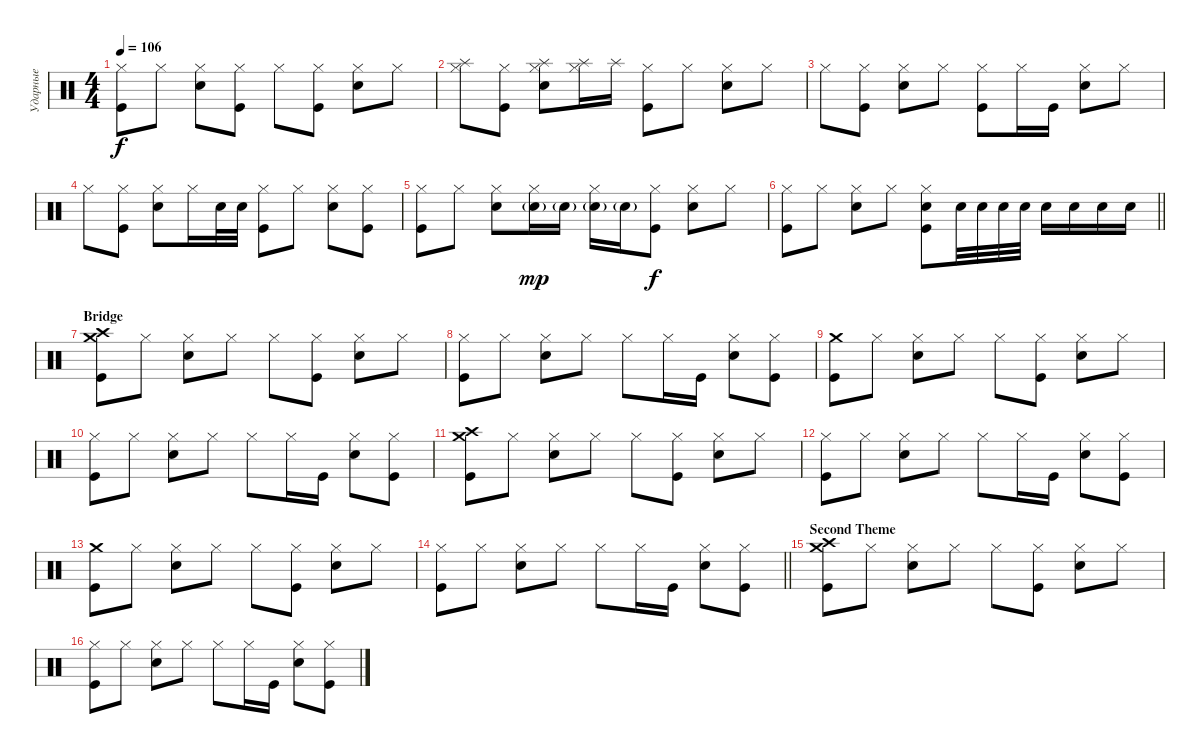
\track ("Ударные" "Ударные") {instrument percussion}
\staff {score}
\articulation defaults
\ts (4 4)
\tempo 106
\clef neutral
\ks c
("Hi-Hat (closed)" "Kick (hit)").8{dy f} "Hi-Hat (closed)".8 ("Hi-Hat (closed)" "Snare (hit) 2").8 ("Hi-Hat (closed)" "Kick (hit)").8 "Hi-Hat (closed)".8 ("Hi-Hat (closed)" "Kick (hit)").8 ("Hi-Hat (closed)" "Snare (hit) 2").8 "Hi-Hat (closed)".8 |
("Hi-Hat (closed)" "Splash (hit)").8 ("Hi-Hat (closed)" "Kick (hit)").8 ("Hi-Hat (closed)" "Splash (hit)" "Snare (hit) 2").8 ("Hi-Hat (closed)" "Splash (hit)").16 "Splash (hit)".16 ("Hi-Hat (closed)" "Kick (hit)").8 "Hi-Hat (closed)".8 ("Hi-Hat (closed)" "Snare (hit) 2").8 "Hi-Hat (closed)".8 |
"Hi-Hat (closed)".8 ("Hi-Hat (closed)" "Kick (hit)").8 ("Hi-Hat (closed)" "Snare (hit) 2").8 "Hi-Hat (closed)".8 ("Hi-Hat (closed)" "Kick (hit)").8 "Hi-Hat (closed)".16 "Kick (hit)".16 ("Hi-Hat (closed)" "Snare (hit) 2").8 "Hi-Hat (closed)".8 |
"Hi-Hat (closed)".8 ("Hi-Hat (closed)" "Kick (hit)").8 ("Hi-Hat (closed)" "Snare (hit) 2").8 "Hi-Hat (closed)".16 "Snare (hit) 2".32 "Snare (hit) 2".32 ("Hi-Hat (closed)" "Kick (hit)").8 "Hi-Hat (closed)".8 ("Hi-Hat (closed)" "Snare (hit) 2").8 ("Hi-Hat (closed)" "Kick (hit)").8 |
("Hi-Hat (closed)" "Kick (hit)").8 "Hi-Hat (closed)".8 ("Hi-Hat (closed)" "Snare (hit) 2").8 ("Hi-Hat (closed)" "Snare (hit) 2"{g}).16{dy mp} "Snare (hit) 2"{g}.16 ("Hi-Hat (closed)" "Snare (hit) 2"{g}).16 "Snare (hit) 2"{g}.16 ("Hi-Hat (closed)" "Kick (hit)").8{dy f} ("Hi-Hat (closed)" "Snare (hit) 2").8 "Hi-Hat (closed)".8 |
\barLineRight lightlight
("Hi-Hat (closed)" "Kick (hit)").8 "Hi-Hat (closed)".8 ("Hi-Hat (closed)" "Snare (hit) 2").8 "Hi-Hat (closed)".8 ("Hi-Hat (closed)" "Snare (hit) 2" "Kick (hit)").8 "Snare (hit) 2".32 "Snare (hit) 2".32 "Snare (hit) 2".32 "Snare (hit) 2".32 "Snare (hit) 2".16 "Snare (hit) 2".16 "Snare (hit) 2".16 "Snare (hit) 2".16 |
\section ("" "Bridge")
("Crash high (hit)" "Crash medium (hit)" "Kick (hit)").8 "Hi-Hat (closed)".8 ("Hi-Hat (closed)" "Snare (hit) 2").8 "Hi-Hat (closed)".8 "Hi-Hat (closed)".8 ("Hi-Hat (closed)" "Kick (hit)").8 ("Hi-Hat (closed)" "Snare (hit) 2").8 "Hi-Hat (closed)".8 |
("Hi-Hat (closed)" "Kick (hit)").8 "Hi-Hat (closed)".8 ("Hi-Hat (closed)" "Snare (hit) 2").8 "Hi-Hat (closed)".8 "Hi-Hat (closed)".8 "Hi-Hat (closed)".16 "Kick (hit)".16 ("Hi-Hat (closed)" "Snare (hit) 2").8 ("Hi-Hat (closed)" "Kick (hit)").8 |
("Crash medium (hit)" "Kick (hit)").8 "Hi-Hat (closed)".8 ("Hi-Hat (closed)" "Snare (hit) 2").8 "Hi-Hat (closed)".8 "Hi-Hat (closed)".8 ("Hi-Hat (closed)" "Kick (hit)").8 ("Hi-Hat (closed)" "Snare (hit) 2").8 "Hi-Hat (closed)".8 |
("Hi-Hat (closed)" "Kick (hit)").8 "Hi-Hat (closed)".8 ("Hi-Hat (closed)" "Snare (hit) 2").8 "Hi-Hat (closed)".8 "Hi-Hat (closed)".8 "Hi-Hat (closed)".16 "Kick (hit)".16 ("Hi-Hat (closed)" "Snare (hit) 2").8 ("Hi-Hat (closed)" "Kick (hit)").8 |
("Crash high (hit)" "Crash medium (hit)" "Kick (hit)").8 "Hi-Hat (closed)".8 ("Hi-Hat (closed)" "Snare (hit) 2").8 "Hi-Hat (closed)".8 "Hi-Hat (closed)".8 ("Hi-Hat (closed)" "Kick (hit)").8 ("Hi-Hat (closed)" "Snare (hit) 2").8 "Hi-Hat (closed)".8 |
("Hi-Hat (closed)" "Kick (hit)").8 "Hi-Hat (closed)".8 ("Hi-Hat (closed)" "Snare (hit) 2").8 "Hi-Hat (closed)".8 "Hi-Hat (closed)".8 "Hi-Hat (closed)".16 "Kick (hit)".16 ("Hi-Hat (closed)" "Snare (hit) 2").8 ("Hi-Hat (closed)" "Kick (hit)").8 |
("Crash medium (hit)" "Kick (hit)").8 "Hi-Hat (closed)".8 ("Hi-Hat (closed)" "Snare (hit) 2").8 "Hi-Hat (closed)".8 "Hi-Hat (closed)".8 ("Hi-Hat (closed)" "Kick (hit)").8 ("Hi-Hat (closed)" "Snare (hit) 2").8 "Hi-Hat (closed)".8 |
\barLineRight lightlight
("Hi-Hat (closed)" "Kick (hit)").8 "Hi-Hat (closed)".8 ("Hi-Hat (closed)" "Snare (hit) 2").8 "Hi-Hat (closed)".8 "Hi-Hat (closed)".8 "Hi-Hat (closed)".16 "Kick (hit)".16 ("Hi-Hat (closed)" "Snare (hit) 2").8 ("Hi-Hat (closed)" "Kick (hit)").8 |
\section ("" "Second Theme")
("Crash high (hit)" "Crash medium (hit)" "Kick (hit)").8 "Hi-Hat (closed)".8 ("Hi-Hat (closed)" "Snare (hit) 2").8 "Hi-Hat (closed)".8 "Hi-Hat (closed)".8 ("Hi-Hat (closed)" "Kick (hit)").8 ("Hi-Hat (closed)" "Snare (hit) 2").8 "Hi-Hat (closed)".8 |
("Hi-Hat (closed)" "Kick (hit)").8 "Hi-Hat (closed)".8 ("Hi-Hat (closed)" "Snare (hit) 2").8 "Hi-Hat (closed)".8 "Hi-Hat (closed)".8 "Hi-Hat (closed)".16 "Kick (hit)".16 ("Hi-Hat (closed)" "Snare (hit) 2").8 ("Hi-Hat (closed)" "Kick (hit)").8
